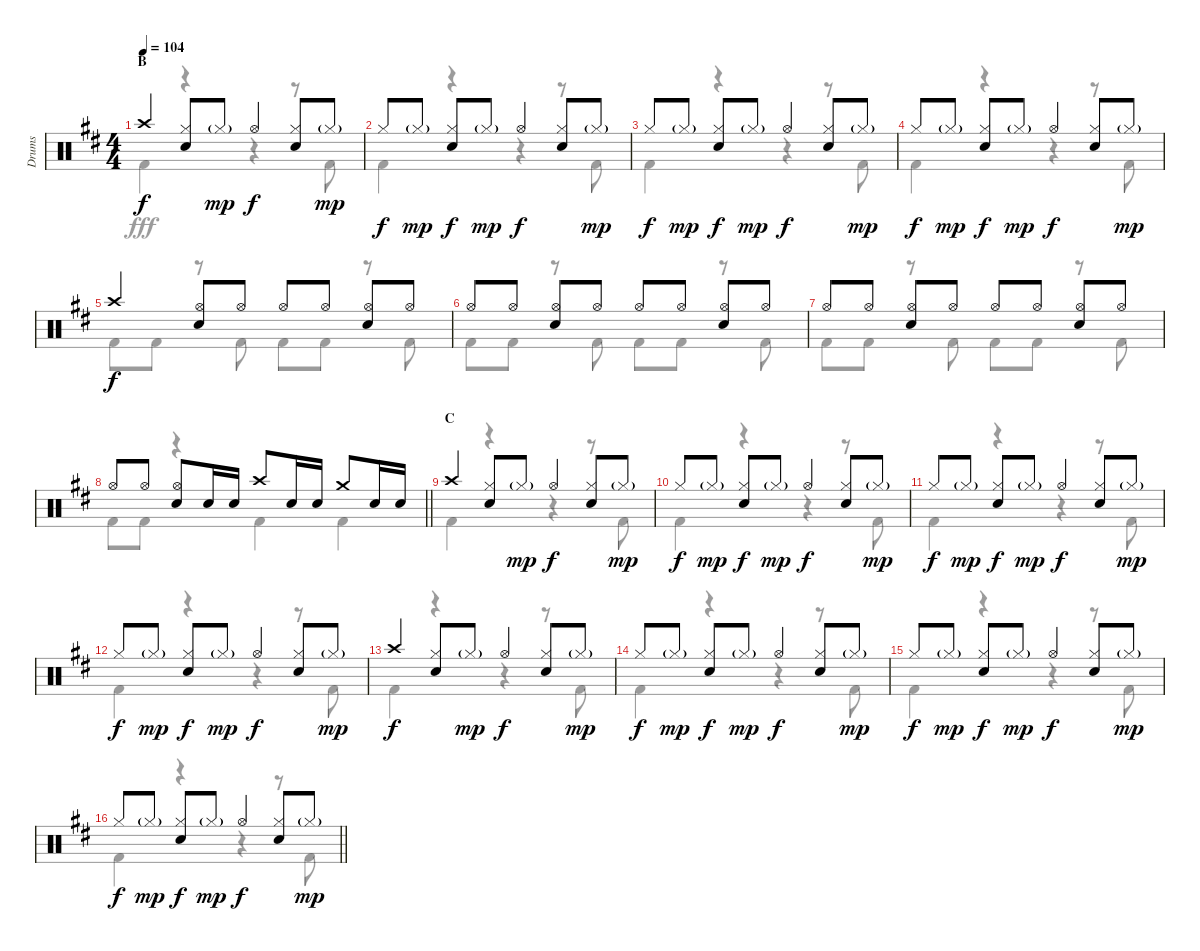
\track ("Drums" "Drums") {instrument percussion}
\staff {score}
\articulation defaults
\voice
\ts (4 4)
\section ("" "B")
\tempo 104
\clef neutral
\ks d "Crash high (hit)".4{dy f}
("Hi-Hat (closed)" "Snare (hit) 2").8 "Hi-Hat (closed)"{g}.8{dy mp} "Hi-Hat (open)".4{dy f} ("Hi-Hat (closed)" "Snare (hit) 2").8 "Hi-Hat (closed)"{g}.8{dy mp} |
"Hi-Hat (closed)".8{dy f} "Hi-Hat (closed)"{g}.8{dy mp} ("Hi-Hat (closed)" "Snare (hit) 2").8{dy f} "Hi-Hat (closed)"{g}.8{dy mp} "Hi-Hat (open)".4{dy f} ("Hi-Hat (closed)" "Snare (hit) 2").8 "Hi-Hat (closed)"{g}.8{dy mp} |
"Hi-Hat (closed)".8{dy f} "Hi-Hat (closed)"{g}.8{dy mp} ("Hi-Hat (closed)" "Snare (hit) 2").8{dy f} "Hi-Hat (closed)"{g}.8{dy mp} "Hi-Hat (open)".4{dy f} ("Hi-Hat (closed)" "Snare (hit) 2").8 "Hi-Hat (closed)"{g}.8{dy mp} |
"Hi-Hat (closed)".8{dy f} "Hi-Hat (closed)"{g}.8{dy mp} ("Hi-Hat (closed)" "Snare (hit) 2").8{dy f} "Hi-Hat (closed)"{g}.8{dy mp} "Hi-Hat (open)".4{dy f} ("Hi-Hat (closed)" "Snare (hit) 2").8 "Hi-Hat (closed)"{g}.8{dy mp} |
"Crash high (hit)".4{dy f} ("Hi-Hat (open)" "Snare (hit) 2").8 "Hi-Hat (open)".8 "Hi-Hat (open)".8 "Hi-Hat (open)".8 ("Hi-Hat (open)" "Snare (hit) 2").8 "Hi-Hat (open)".8 |
"Hi-Hat (open)".8 "Hi-Hat (open)".8 ("Hi-Hat (open)" "Snare (hit) 2").8 "Hi-Hat (open)".8 "Hi-Hat (open)".8 "Hi-Hat (open)".8 ("Hi-Hat (open)" "Snare (hit) 2").8 "Hi-Hat (open)".8 |
"Hi-Hat (open)".8 "Hi-Hat (open)".8 ("Hi-Hat (open)" "Snare (hit) 2").8 "Hi-Hat (open)".8 "Hi-Hat (open)".8 "Hi-Hat (open)".8 ("Hi-Hat (open)" "Snare (hit) 2").8 "Hi-Hat (open)".8 |
\barLineRight lightlight "Hi-Hat (open)".8 "Hi-Hat (open)".8
("Hi-Hat (open)" "Snare (hit) 2").8 "Snare (hit) 2".16 "Snare (hit) 2".16 "Crash high (hit)".8 "Snare (hit) 2".16 "Snare (hit) 2".16 "Crash medium (hit)".8 "Snare (hit) 2".16 "Snare (hit) 2".16 |
\section ("" "C")
"Crash high (hit)".4 ("Hi-Hat (closed)" "Snare (hit) 2").8 "Hi-Hat (closed)"{g}.8{dy mp} "Hi-Hat (open)".4{dy f} ("Hi-Hat (closed)" "Snare (hit) 2").8 "Hi-Hat (closed)"{g}.8{dy mp} |
"Hi-Hat (closed)".8{dy f} "Hi-Hat (closed)"{g}.8{dy mp} ("Hi-Hat (closed)" "Snare (hit) 2").8{dy f} "Hi-Hat (closed)"{g}.8{dy mp} "Hi-Hat (open)".4{dy f} ("Hi-Hat (closed)" "Snare (hit) 2").8 "Hi-Hat (closed)"{g}.8{dy mp} |
"Hi-Hat (closed)".8{dy f} "Hi-Hat (closed)"{g}.8{dy mp} ("Hi-Hat (closed)" "Snare (hit) 2").8{dy f} "Hi-Hat (closed)"{g}.8{dy mp} "Hi-Hat (open)".4{dy f} ("Hi-Hat (closed)" "Snare (hit) 2").8 "Hi-Hat (closed)"{g}.8{dy mp} |
"Hi-Hat (closed)".8{dy f} "Hi-Hat (closed)"{g}.8{dy mp} ("Hi-Hat (closed)" "Snare (hit) 2").8{dy f} "Hi-Hat (closed)"{g}.8{dy mp} "Hi-Hat (open)".4{dy f} ("Hi-Hat (closed)" "Snare (hit) 2").8 "Hi-Hat (closed)"{g}.8{dy mp} |
"Crash high (hit)".4{dy f} ("Hi-Hat (closed)" "Snare (hit) 2").8 "Hi-Hat (closed)"{g}.8{dy mp} "Hi-Hat (open)".4{dy f} ("Hi-Hat (closed)" "Snare (hit) 2").8 "Hi-Hat (closed)"{g}.8{dy mp} |
"Hi-Hat (closed)".8{dy f} "Hi-Hat (closed)"{g}.8{dy mp} ("Hi-Hat (closed)" "Snare (hit) 2").8{dy f} "Hi-Hat (closed)"{g}.8{dy mp} "Hi-Hat (open)".4{dy f} ("Hi-Hat (closed)" "Snare (hit) 2").8 "Hi-Hat (closed)"{g}.8{dy mp} |
"Hi-Hat (closed)".8{dy f} "Hi-Hat (closed)"{g}.8{dy mp} ("Hi-Hat (closed)" "Snare (hit) 2").8{dy f} "Hi-Hat (closed)"{g}.8{dy mp} "Hi-Hat (open)".4{dy f} ("Hi-Hat (closed)" "Snare (hit) 2").8 "Hi-Hat (closed)"{g}.8{dy mp} |
\barLineRight lightlight "Hi-Hat (closed)".8{dy f} "Hi-Hat (closed)"{g}.8{dy mp}
("Hi-Hat (closed)" "Snare (hit) 2").8{dy f} "Hi-Hat (closed)"{g}.8{dy mp} "Hi-Hat (open)".4{dy f} ("Hi-Hat (closed)" "Snare (hit) 2").8 "Hi-Hat (closed)"{g}.8{dy mp}
\voice
\clef neutral
\ottava regular
\simile none
\ks d "Kick (hit) 2".4{dy fff}
r.4 r.4 r.8 "Kick (hit) 2".8 |
"Kick (hit) 2".4 r.4 r.4 r.8 "Kick (hit) 2".8 |
"Kick (hit) 2".4 r.4 r.4 r.8 "Kick (hit) 2".8 |
"Kick (hit) 2".4 r.4 r.4 r.8 "Kick (hit) 2".8 |
"Kick (hit) 2".8 "Kick (hit) 2".8 r.8 "Kick (hit) 2".8 "Kick (hit) 2".8 "Kick (hit) 2".8 r.8 "Kick (hit) 2".8 |
"Kick (hit) 2".8 "Kick (hit) 2".8 r.8 "Kick (hit) 2".8 "Kick (hit) 2".8 "Kick (hit) 2".8 r.8 "Kick (hit) 2".8 |
"Kick (hit) 2".8 "Kick (hit) 2".8 r.8 "Kick (hit) 2".8 "Kick (hit) 2".8 "Kick (hit) 2".8 r.8 "Kick (hit) 2".8 |
\barLineRight lightlight "Kick (hit) 2".8 "Kick (hit) 2".8
r.4 "Kick (hit) 2".4 "Kick (hit) 2".4 |
"Kick (hit) 2".4 r.4 r.4 r.8 "Kick (hit) 2".8 |
"Kick (hit) 2".4 r.4 r.4 r.8 "Kick (hit) 2".8 |
"Kick (hit) 2".4 r.4 r.4 r.8 "Kick (hit) 2".8 |
"Kick (hit) 2".4 r.4 r.4 r.8 "Kick (hit) 2".8 |
"Kick (hit) 2".4 r.4 r.4 r.8 "Kick (hit) 2".8 |
"Kick (hit) 2".4 r.4 r.4 r.8 "Kick (hit) 2".8 |
"Kick (hit) 2".4 r.4 r.4 r.8 "Kick (hit) 2".8 |
\barLineRight lightlight "Kick (hit) 2".4
r.4 r.4 r.8 "Kick (hit) 2".8
